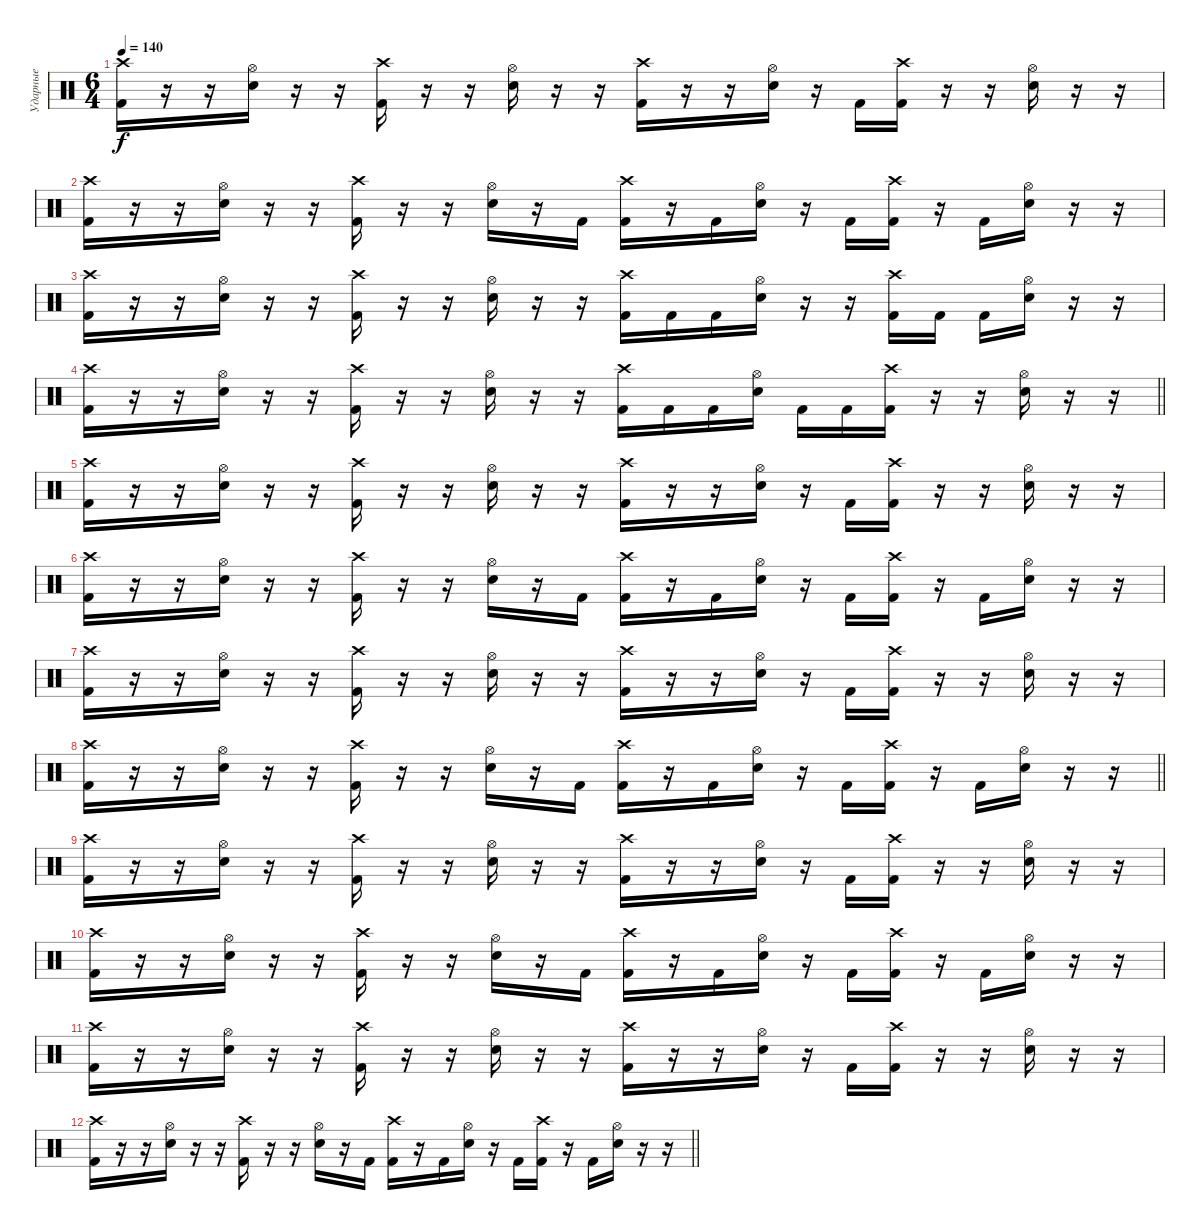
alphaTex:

\track ("Ударные" "Ударные") {instrument percussion}
\staff {score}
\articulation defaults
\ts (6 4)
\tempo 140
\clef neutral
\ks c
("Crash high (hit)" "Kick (hit) 2").16{dy f} r.16 r.16 ("Hi-Hat (open)" "Snare (hit) 2").16 r.16 r.16 ("Crash high (hit)" "Kick (hit) 2").16 r.16 r.16 ("Hi-Hat (open)" "Snare (hit) 2").16 r.16 r.16 ("Crash high (hit)" "Kick (hit) 2").16 r.16 r.16 ("Hi-Hat (open)" "Snare (hit) 2").16 r.16 "Kick (hit) 2".16 ("Crash high (hit)" "Kick (hit) 2").16 r.16 r.16 ("Hi-Hat (open)" "Snare (hit) 2").16 r.16 r.16 |
("Crash high (hit)" "Kick (hit) 2").16 r.16 r.16 ("Hi-Hat (open)" "Snare (hit) 2").16 r.16 r.16 ("Crash high (hit)" "Kick (hit) 2").16 r.16 r.16 ("Hi-Hat (open)" "Snare (hit) 2").16 r.16 "Kick (hit) 2".16 ("Crash high (hit)" "Kick (hit) 2").16 r.16 "Kick (hit) 2".16 ("Hi-Hat (open)" "Snare (hit) 2").16 r.16 "Kick (hit) 2".16 ("Crash high (hit)" "Kick (hit) 2").16 r.16 "Kick (hit) 2".16 ("Hi-Hat (open)" "Snare (hit) 2").16 r.16 r.16 |
("Crash high (hit)" "Kick (hit) 2").16 r.16 r.16 ("Hi-Hat (open)" "Snare (hit) 2").16 r.16 r.16 ("Crash high (hit)" "Kick (hit) 2").16 r.16 r.16 ("Hi-Hat (open)" "Snare (hit) 2").16 r.16 r.16 ("Crash high (hit)" "Kick (hit) 2").16 "Kick (hit) 2".16 "Kick (hit) 2".16 ("Hi-Hat (open)" "Snare (hit) 2").16 r.16 r.16 ("Crash high (hit)" "Kick (hit) 2").16 "Kick (hit) 2".16 "Kick (hit) 2".16 ("Hi-Hat (open)" "Snare (hit) 2").16 r.16 r.16 |
\barLineRight lightlight
("Crash high (hit)" "Kick (hit) 2").16 r.16 r.16 ("Hi-Hat (open)" "Snare (hit) 2").16 r.16 r.16 ("Crash high (hit)" "Kick (hit) 2").16 r.16 r.16 ("Hi-Hat (open)" "Snare (hit) 2").16 r.16 r.16 ("Crash high (hit)" "Kick (hit) 2").16 "Kick (hit) 2".16 "Kick (hit) 2".16 ("Hi-Hat (open)" "Snare (hit) 2").16 "Kick (hit) 2".16 "Kick (hit) 2".16 ("Crash high (hit)" "Kick (hit) 2").16 r.16 r.16 ("Hi-Hat (open)" "Snare (hit) 2").16 r.16 r.16 |
("Crash high (hit)" "Kick (hit) 2").16 r.16 r.16 ("Hi-Hat (open)" "Snare (hit) 2").16 r.16 r.16 ("Crash high (hit)" "Kick (hit) 2").16 r.16 r.16 ("Hi-Hat (open)" "Snare (hit) 2").16 r.16 r.16 ("Crash high (hit)" "Kick (hit) 2").16 r.16 r.16 ("Hi-Hat (open)" "Snare (hit) 2").16 r.16 "Kick (hit) 2".16 ("Crash high (hit)" "Kick (hit) 2").16 r.16 r.16 ("Hi-Hat (open)" "Snare (hit) 2").16 r.16 r.16 |
("Crash high (hit)" "Kick (hit) 2").16 r.16 r.16 ("Hi-Hat (open)" "Snare (hit) 2").16 r.16 r.16 ("Crash high (hit)" "Kick (hit) 2").16 r.16 r.16 ("Hi-Hat (open)" "Snare (hit) 2").16 r.16 "Kick (hit) 2".16 ("Crash high (hit)" "Kick (hit) 2").16 r.16 "Kick (hit) 2".16 ("Hi-Hat (open)" "Snare (hit) 2").16 r.16 "Kick (hit) 2".16 ("Crash high (hit)" "Kick (hit) 2").16 r.16 "Kick (hit) 2".16 ("Hi-Hat (open)" "Snare (hit) 2").16 r.16 r.16 |
("Crash high (hit)" "Kick (hit) 2").16 r.16 r.16 ("Hi-Hat (open)" "Snare (hit) 2").16 r.16 r.16 ("Crash high (hit)" "Kick (hit) 2").16 r.16 r.16 ("Hi-Hat (open)" "Snare (hit) 2").16 r.16 r.16 ("Crash high (hit)" "Kick (hit) 2").16 r.16 r.16 ("Hi-Hat (open)" "Snare (hit) 2").16 r.16 "Kick (hit) 2".16 ("Crash high (hit)" "Kick (hit) 2").16 r.16 r.16 ("Hi-Hat (open)" "Snare (hit) 2").16 r.16 r.16 |
\barLineRight lightlight
("Crash high (hit)" "Kick (hit) 2").16 r.16 r.16 ("Hi-Hat (open)" "Snare (hit) 2").16 r.16 r.16 ("Crash high (hit)" "Kick (hit) 2").16 r.16 r.16 ("Hi-Hat (open)" "Snare (hit) 2").16 r.16 "Kick (hit) 2".16 ("Crash high (hit)" "Kick (hit) 2").16 r.16 "Kick (hit) 2".16 ("Hi-Hat (open)" "Snare (hit) 2").16 r.16 "Kick (hit) 2".16 ("Crash high (hit)" "Kick (hit) 2").16 r.16 "Kick (hit) 2".16 ("Hi-Hat (open)" "Snare (hit) 2").16 r.16 r.16 |
("Crash high (hit)" "Kick (hit) 2").16 r.16 r.16 ("Hi-Hat (open)" "Snare (hit) 2").16 r.16 r.16 ("Crash high (hit)" "Kick (hit) 2").16 r.16 r.16 ("Hi-Hat (open)" "Snare (hit) 2").16 r.16 r.16 ("Crash high (hit)" "Kick (hit) 2").16 r.16 r.16 ("Hi-Hat (open)" "Snare (hit) 2").16 r.16 "Kick (hit) 2".16 ("Crash high (hit)" "Kick (hit) 2").16 r.16 r.16 ("Hi-Hat (open)" "Snare (hit) 2").16 r.16 r.16 |
("Crash high (hit)" "Kick (hit) 2").16 r.16 r.16 ("Hi-Hat (open)" "Snare (hit) 2").16 r.16 r.16 ("Crash high (hit)" "Kick (hit) 2").16 r.16 r.16 ("Hi-Hat (open)" "Snare (hit) 2").16 r.16 "Kick (hit) 2".16 ("Crash high (hit)" "Kick (hit) 2").16 r.16 "Kick (hit) 2".16 ("Hi-Hat (open)" "Snare (hit) 2").16 r.16 "Kick (hit) 2".16 ("Crash high (hit)" "Kick (hit) 2").16 r.16 "Kick (hit) 2".16 ("Hi-Hat (open)" "Snare (hit) 2").16 r.16 r.16 |
("Crash high (hit)" "Kick (hit) 2").16 r.16 r.16 ("Hi-Hat (open)" "Snare (hit) 2").16 r.16 r.16 ("Crash high (hit)" "Kick (hit) 2").16 r.16 r.16 ("Hi-Hat (open)" "Snare (hit) 2").16 r.16 r.16 ("Crash high (hit)" "Kick (hit) 2").16 r.16 r.16 ("Hi-Hat (open)" "Snare (hit) 2").16 r.16 "Kick (hit) 2".16 ("Crash high (hit)" "Kick (hit) 2").16 r.16 r.16 ("Hi-Hat (open)" "Snare (hit) 2").16 r.16 r.16 |
\barLineRight lightlight
("Crash high (hit)" "Kick (hit) 2").16 r.16 r.16 ("Hi-Hat (open)" "Snare (hit) 2").16 r.16 r.16 ("Crash high (hit)" "Kick (hit) 2").16 r.16 r.16 ("Hi-Hat (open)" "Snare (hit) 2").16 r.16 "Kick (hit) 2".16 ("Crash high (hit)" "Kick (hit) 2").16 r.16 "Kick (hit) 2".16 ("Hi-Hat (open)" "Snare (hit) 2").16 r.16 "Kick (hit) 2".16 ("Crash high (hit)" "Kick (hit) 2").16 r.16 "Kick (hit) 2".16 ("Hi-Hat (open)" "Snare (hit) 2").16 r.16 r.16
